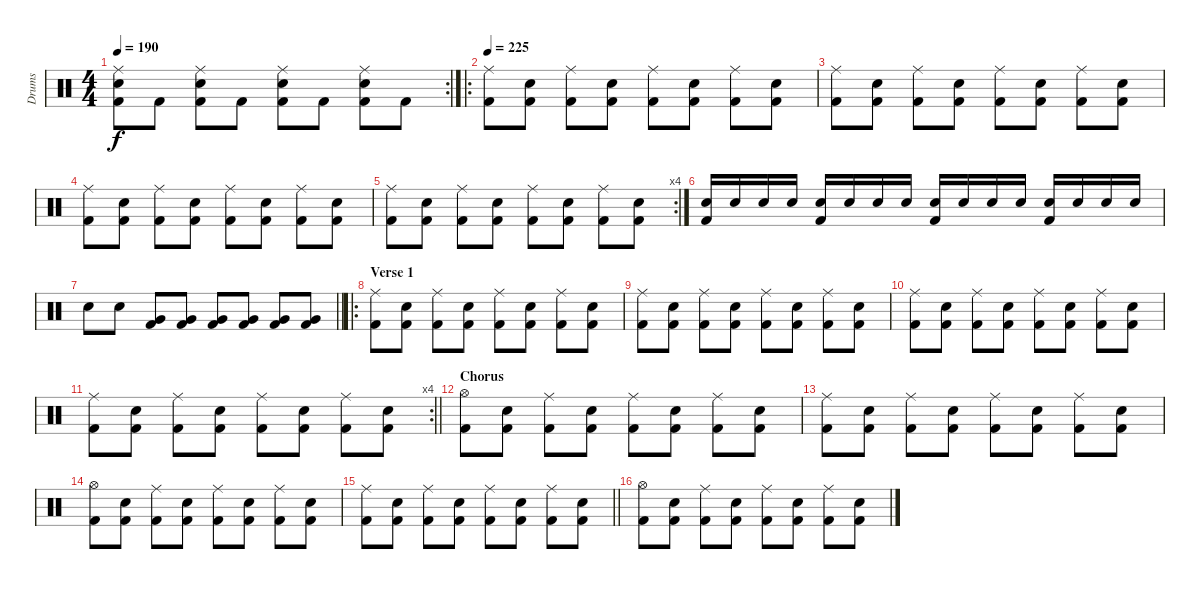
\track ("Drums" "Drums") {instrument percussion}
\staff {score}
\articulation defaults
\rc 2
\ts (4 4)
\tempo 190
\clef neutral
\ks c
("Ride (middle)" "Snare (hit) 2" "Kick (hit) 2").8{dy f} "Kick (hit) 2".8 ("Ride (middle)" "Snare (hit) 2" "Kick (hit) 2").8 "Kick (hit) 2".8 ("Ride (middle)" "Snare (hit) 2" "Kick (hit) 2").8 "Kick (hit) 2".8 ("Ride (middle)" "Snare (hit) 2" "Kick (hit) 2").8 "Kick (hit) 2".8 |
\ro
\tempo 225
("Ride (middle)" "Kick (hit) 2").8 ("Snare (hit) 2" "Kick (hit) 2").8 ("Ride (middle)" "Kick (hit) 2").8 ("Snare (hit) 2" "Kick (hit) 2").8 ("Ride (middle)" "Kick (hit) 2").8 ("Snare (hit) 2" "Kick (hit) 2").8 ("Ride (middle)" "Kick (hit) 2").8 ("Snare (hit) 2" "Kick (hit) 2").8 |
("Ride (middle)" "Kick (hit) 2").8 ("Snare (hit) 2" "Kick (hit) 2").8 ("Ride (middle)" "Kick (hit) 2").8 ("Snare (hit) 2" "Kick (hit) 2").8 ("Ride (middle)" "Kick (hit) 2").8 ("Snare (hit) 2" "Kick (hit) 2").8 ("Ride (middle)" "Kick (hit) 2").8 ("Snare (hit) 2" "Kick (hit) 2").8 |
("Ride (middle)" "Kick (hit) 2").8 ("Snare (hit) 2" "Kick (hit) 2").8 ("Ride (middle)" "Kick (hit) 2").8 ("Snare (hit) 2" "Kick (hit) 2").8 ("Ride (middle)" "Kick (hit) 2").8 ("Snare (hit) 2" "Kick (hit) 2").8 ("Ride (middle)" "Kick (hit) 2").8 ("Snare (hit) 2" "Kick (hit) 2").8 |
\rc 4
("Ride (middle)" "Kick (hit) 2").8 ("Snare (hit) 2" "Kick (hit) 2").8 ("Ride (middle)" "Kick (hit) 2").8 ("Snare (hit) 2" "Kick (hit) 2").8 ("Ride (middle)" "Kick (hit) 2").8 ("Snare (hit) 2" "Kick (hit) 2").8 ("Ride (middle)" "Kick (hit) 2").8 ("Snare (hit) 2" "Kick (hit) 2").8 |
("Snare (hit) 2" "Kick (hit) 2").16 "Snare (hit) 2".16 "Snare (hit) 2".16 "Snare (hit) 2".16 ("Snare (hit) 2" "Kick (hit) 2").16 "Snare (hit) 2".16 "Snare (hit) 2".16 "Snare (hit) 2".16 ("Snare (hit) 2" "Kick (hit) 2").16 "Snare (hit) 2".16 "Snare (hit) 2".16 "Snare (hit) 2".16 ("Snare (hit) 2" "Kick (hit) 2").16 "Snare (hit) 2".16 "Snare (hit) 2".16 "Snare (hit) 2".16 |
\barLineRight lightlight "Snare (hit) 2".8 "Snare (hit) 2".8
("Very Low Tom (hit)" "Kick (hit) 2").8 ("Very Low Tom (hit)" "Kick (hit) 2").8 ("Very Low Tom (hit)" "Kick (hit) 2").8 ("Very Low Tom (hit)" "Kick (hit) 2").8 ("Very Low Tom (hit)" "Kick (hit) 2").8 ("Very Low Tom (hit)" "Kick (hit) 2").8 |
\ro
\section ("" "Verse 1")
("Ride (middle)" "Kick (hit) 2").8 ("Snare (hit) 2" "Kick (hit) 2").8 ("Ride (middle)" "Kick (hit) 2").8 ("Snare (hit) 2" "Kick (hit) 2").8 ("Ride (middle)" "Kick (hit) 2").8 ("Snare (hit) 2" "Kick (hit) 2").8 ("Ride (middle)" "Kick (hit) 2").8 ("Snare (hit) 2" "Kick (hit) 2").8 |
("Ride (middle)" "Kick (hit) 2").8 ("Snare (hit) 2" "Kick (hit) 2").8 ("Ride (middle)" "Kick (hit) 2").8 ("Snare (hit) 2" "Kick (hit) 2").8 ("Ride (middle)" "Kick (hit) 2").8 ("Snare (hit) 2" "Kick (hit) 2").8 ("Ride (middle)" "Kick (hit) 2").8 ("Snare (hit) 2" "Kick (hit) 2").8 |
("Ride (middle)" "Kick (hit) 2").8 ("Snare (hit) 2" "Kick (hit) 2").8 ("Ride (middle)" "Kick (hit) 2").8 ("Snare (hit) 2" "Kick (hit) 2").8 ("Ride (middle)" "Kick (hit) 2").8 ("Snare (hit) 2" "Kick (hit) 2").8 ("Ride (middle)" "Kick (hit) 2").8 ("Snare (hit) 2" "Kick (hit) 2").8 |
\rc 4
\barLineRight lightlight
("Ride (middle)" "Kick (hit) 2").8 ("Snare (hit) 2" "Kick (hit) 2").8 ("Ride (middle)" "Kick (hit) 2").8 ("Snare (hit) 2" "Kick (hit) 2").8 ("Ride (middle)" "Kick (hit) 2").8 ("Snare (hit) 2" "Kick (hit) 2").8 ("Ride (middle)" "Kick (hit) 2").8 ("Snare (hit) 2" "Kick (hit) 2").8 |
\section ("" "Chorus")
("Hi-Hat (open)" "Kick (hit) 2").8 ("Snare (hit) 2" "Kick (hit) 2").8 ("Ride (middle)" "Kick (hit) 2").8 ("Snare (hit) 2" "Kick (hit) 2").8 ("Ride (middle)" "Kick (hit) 2").8 ("Snare (hit) 2" "Kick (hit) 2").8 ("Ride (middle)" "Kick (hit) 2").8 ("Snare (hit) 2" "Kick (hit) 2").8 |
("Ride (middle)" "Kick (hit) 2").8 ("Snare (hit) 2" "Kick (hit) 2").8 ("Ride (middle)" "Kick (hit) 2").8 ("Snare (hit) 2" "Kick (hit) 2").8 ("Ride (middle)" "Kick (hit) 2").8 ("Snare (hit) 2" "Kick (hit) 2").8 ("Ride (middle)" "Kick (hit) 2").8 ("Snare (hit) 2" "Kick (hit) 2").8 |
("Hi-Hat (open)" "Kick (hit) 2").8 ("Snare (hit) 2" "Kick (hit) 2").8 ("Ride (middle)" "Kick (hit) 2").8 ("Snare (hit) 2" "Kick (hit) 2").8 ("Ride (middle)" "Kick (hit) 2").8 ("Snare (hit) 2" "Kick (hit) 2").8 ("Ride (middle)" "Kick (hit) 2").8 ("Snare (hit) 2" "Kick (hit) 2").8 |
\barLineRight lightlight
("Ride (middle)" "Kick (hit) 2").8 ("Snare (hit) 2" "Kick (hit) 2").8 ("Ride (middle)" "Kick (hit) 2").8 ("Snare (hit) 2" "Kick (hit) 2").8 ("Ride (middle)" "Kick (hit) 2").8 ("Snare (hit) 2" "Kick (hit) 2").8 ("Ride (middle)" "Kick (hit) 2").8 ("Snare (hit) 2" "Kick (hit) 2").8 |
("Hi-Hat (open)" "Kick (hit) 2").8 ("Snare (hit) 2" "Kick (hit) 2").8 ("Ride (middle)" "Kick (hit) 2").8 ("Snare (hit) 2" "Kick (hit) 2").8 ("Ride (middle)" "Kick (hit) 2").8 ("Snare (hit) 2" "Kick (hit) 2").8 ("Ride (middle)" "Kick (hit) 2").8 ("Snare (hit) 2" "Kick (hit) 2").8
